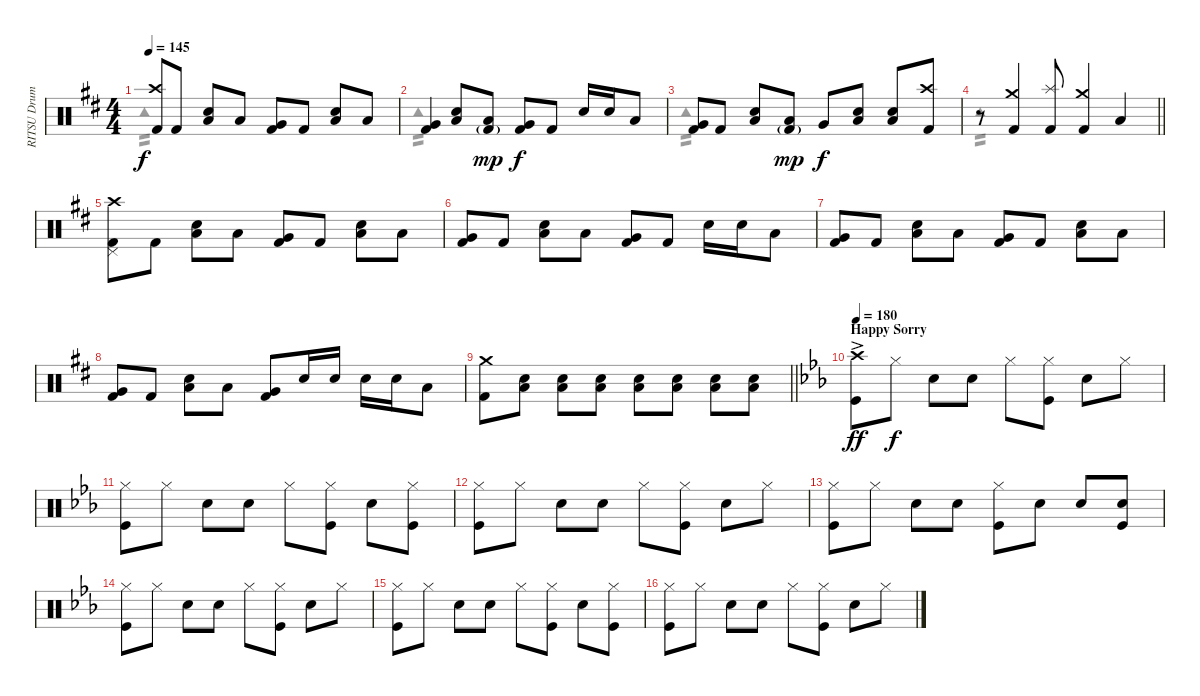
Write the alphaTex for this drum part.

\track ("RITSU Drums" "RITSU Drum") {instrument percussion}
\staff {score}
\articulation defaults
\voice
\ts (4 4)
\tempo 145
\clef neutral
\ks d
("Crash high (hit)" "Kick (hit) 2").8{dy f} "Kick (hit) 2".8 ("Snare (hit) 2" "Low Floor Tom (hit)").8 "Low Tom (hit)".8 ("Very Low Tom (hit)" "Kick (hit) 2").8 "Kick (hit) 2".8 ("Snare (hit) 2" "Low Floor Tom (hit)").8 "Low Tom (hit)".8 |
("Very Low Tom (hit)" "Kick (hit) 2").4 ("Snare (hit) 2" "Low Floor Tom (hit)").8 ("Low Tom (hit)" "Kick (hit) 2"{g}).8{dy mp} ("Very Low Tom (hit)" "Kick (hit) 2").8{dy f} "Kick (hit) 2".8 "Snare (hit) 2".16 "Snare (hit) 2".16 "Low Tom (hit)".8 |
("Very Low Tom (hit)" "Kick (hit) 2").8 "Kick (hit) 2".8 ("Snare (hit) 2" "Low Floor Tom (hit)").8 ("Low Tom (hit)" "Kick (hit) 2"{g}).8{dy mp} "Very Low Tom (hit)".8{dy f} ("Snare (hit) 2" "Low Floor Tom (hit)").8 ("Snare (hit) 2" "Low Floor Tom (hit)").8 ("Crash high (hit)" "Kick (hit) 2").8 |
\barLineRight lightlight
r.8 ("Crash medium (hit)" "Kick (hit) 2").4 ("Splash (hit)" "Kick (hit) 2").8 ("Crash medium (hit)" "Kick (hit) 2").4 "Low Floor Tom (hit)".4 |
("Crash high (hit)" "Pedal Hi-Hat (hit)" "Kick (hit) 2").8 "Kick (hit) 2".8 ("Snare (hit) 2" "Low Floor Tom (hit)").8 "Low Tom (hit)".8 ("Very Low Tom (hit)" "Kick (hit) 2").8 "Kick (hit) 2".8 ("Snare (hit) 2" "Low Floor Tom (hit)").8 "Low Tom (hit)".8 |
("Very Low Tom (hit)" "Kick (hit) 2").8 "Kick (hit) 2".8 ("Snare (hit) 2" "Low Floor Tom (hit)").8 "Low Tom (hit)".8 ("Very Low Tom (hit)" "Kick (hit) 2").8 "Kick (hit) 2".8 "Snare (hit) 2".16 "Snare (hit) 2".16 "Low Tom (hit)".8 |
("Very Low Tom (hit)" "Kick (hit) 2").8 "Kick (hit) 2".8 ("Snare (hit) 2" "Low Floor Tom (hit)").8 "Low Tom (hit)".8 ("Very Low Tom (hit)" "Kick (hit) 2").8 "Kick (hit) 2".8 ("Snare (hit) 2" "Low Floor Tom (hit)").8 "Low Tom (hit)".8 |
("Very Low Tom (hit)" "Kick (hit) 2").8 "Kick (hit) 2".8 ("Snare (hit) 2" "Low Floor Tom (hit)").8 "Low Tom (hit)".8 ("Very Low Tom (hit)" "Kick (hit) 2").8 "Snare (hit) 2".16 "Snare (hit) 2".16 "Snare (hit) 2".16 "Snare (hit) 2".16 "Low Tom (hit)".8 |
\barLineRight lightlight
("Crash medium (hit)" "Kick (hit) 2").8 ("Snare (hit) 2" "Low Floor Tom (hit)").8 ("Snare (hit) 2" "Low Floor Tom (hit)").8 ("Snare (hit) 2" "Low Floor Tom (hit)").8 ("Snare (hit) 2" "Low Floor Tom (hit)").8 ("Snare (hit) 2" "Low Floor Tom (hit)").8 ("Snare (hit) 2" "Low Floor Tom (hit)").8 ("Snare (hit) 2" "Low Floor Tom (hit)").8 |
\section ("" "Happy Sorry")
\tempo 180
\ks cminor
("Crash high (hit)"{ac} "Kick (hit)").8{dy ff} "Hi-Hat (closed)".8{dy f} "Snare (hit) 2".8 "Snare (hit) 2".8 "Hi-Hat (closed)".8 ("Hi-Hat (closed)" "Kick (hit)").8 "Snare (hit) 2".8 "Hi-Hat (closed)".8 |
("Hi-Hat (closed)" "Kick (hit)").8 "Hi-Hat (closed)".8 "Snare (hit) 2".8 "Snare (hit) 2".8 "Hi-Hat (closed)".8 ("Hi-Hat (closed)" "Kick (hit)").8 "Snare (hit) 2".8 ("Hi-Hat (closed)" "Kick (hit)").8 |
("Hi-Hat (closed)" "Kick (hit)").8 "Hi-Hat (closed)".8 "Snare (hit) 2".8 "Snare (hit) 2".8 "Hi-Hat (closed)".8 ("Hi-Hat (closed)" "Kick (hit)").8 "Snare (hit) 2".8 "Hi-Hat (closed)".8 |
("Hi-Hat (closed)" "Kick (hit)").8 "Hi-Hat (closed)".8 "Snare (hit) 2".8 "Snare (hit) 2".8 ("Hi-Hat (closed)" "Kick (hit)").8 "Snare (hit) 2".8 "Snare (hit) 2".8 ("Snare (hit) 2" "Kick (hit)").8 |
("Hi-Hat (closed)" "Kick (hit)").8 "Hi-Hat (closed)".8 "Snare (hit) 2".8 "Snare (hit) 2".8 "Hi-Hat (closed)".8 ("Kick (hit)" "Hi-Hat (closed)").8 "Snare (hit) 2".8 "Hi-Hat (closed)".8 |
("Hi-Hat (closed)" "Kick (hit)").8 "Hi-Hat (closed)".8 "Snare (hit) 2".8 "Snare (hit) 2".8 "Hi-Hat (closed)".8 ("Hi-Hat (closed)" "Kick (hit)").8 "Snare (hit) 2".8 ("Kick (hit)" "Hi-Hat (closed)").8 |
("Hi-Hat (closed)" "Kick (hit)").8 "Hi-Hat (closed)".8 "Snare (hit) 2".8 "Snare (hit) 2".8 "Hi-Hat (closed)".8 ("Kick (hit)" "Hi-Hat (closed)").8 "Snare (hit) 2".8 "Hi-Hat (closed)".8
\voice
\clef neutral
\ottava regular
\simile none
\ks d "Tambourine (hit)".1{tp 2 dy f}
|
"Tambourine (hit)".1{tp 2} |
"Tambourine (hit)".1{tp 2} |
\barLineRight lightlight "Tambourine (hit)".1{tp 2}
|
|
|
|
|
\barLineRight lightlight
|
\ks cminor
|
|
|
|
|
|
